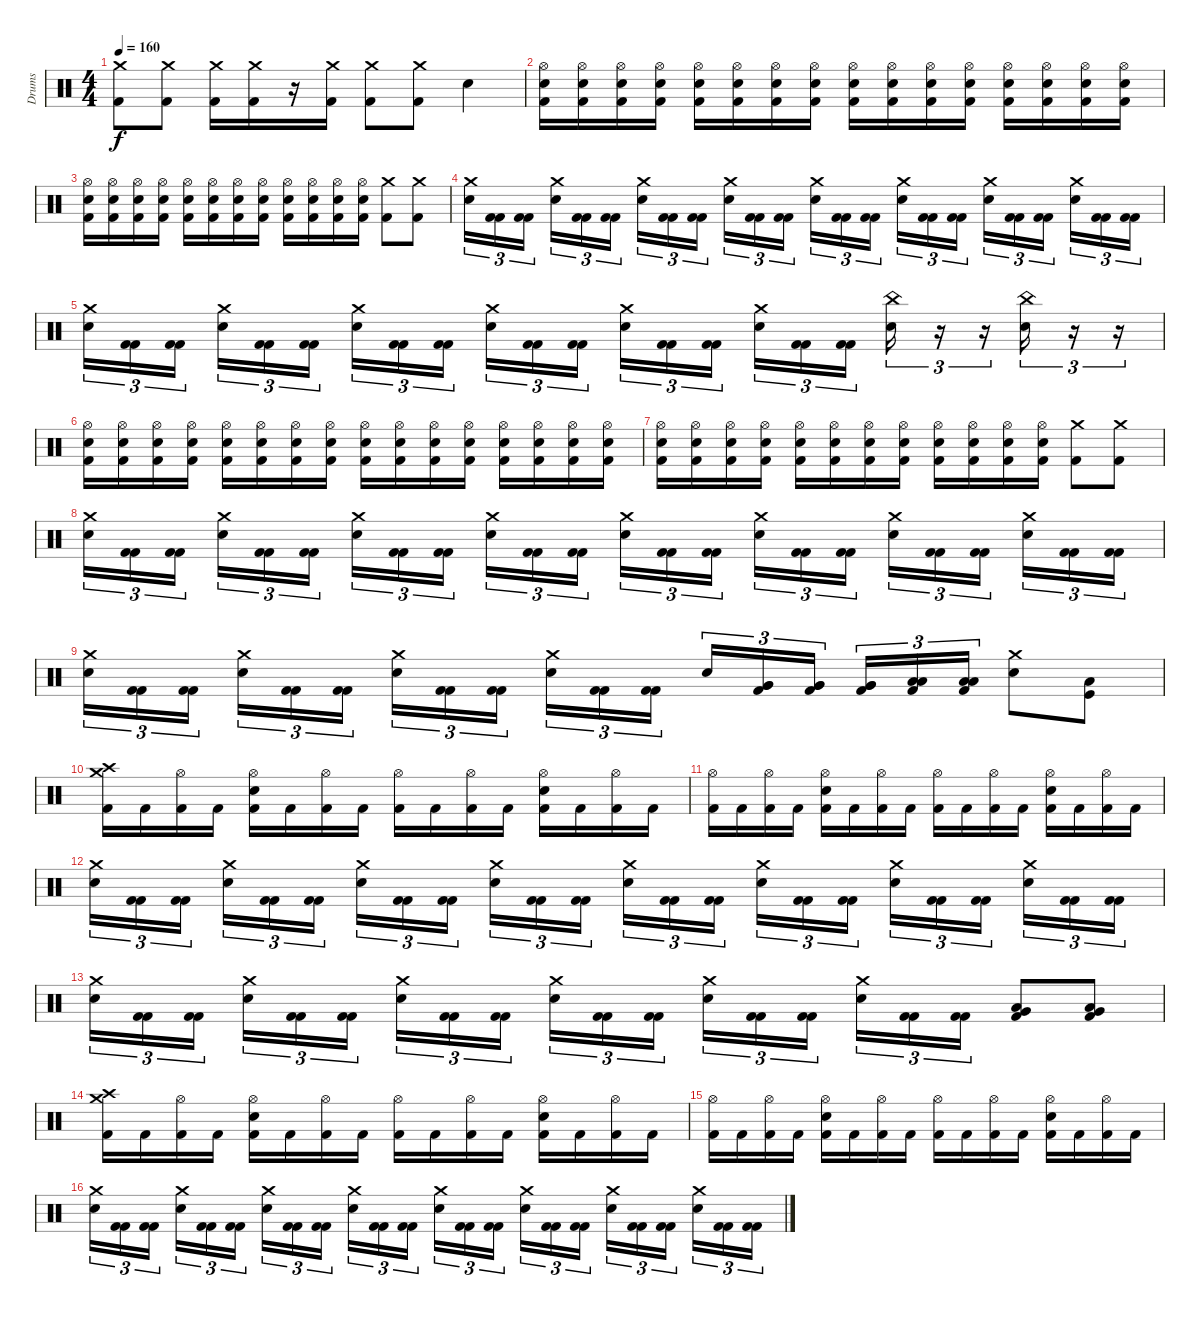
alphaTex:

\track ("Drums" "Drums") {instrument percussion}
\staff {score}
\articulation defaults
\ts (4 4)
\tempo 160
\clef neutral
\ks c
("Crash medium (hit)" "Kick (hit) 2").8{dy f} ("Crash medium (hit)" "Kick (hit) 2").8 ("Crash medium (hit)" "Kick (hit) 2").16 ("Crash medium (hit)" "Kick (hit) 2").16 r.16 ("Crash medium (hit)" "Kick (hit) 2").16 ("Crash medium (hit)" "Kick (hit) 2").8 ("Crash medium (hit)" "Kick (hit) 2").8 "Electric Snare (hit)".4 |
("Hi-Hat (open)" "Electric Snare (hit)" "Kick (hit) 2").16 ("Hi-Hat (open)" "Electric Snare (hit)" "Kick (hit) 2").16 ("Hi-Hat (open)" "Electric Snare (hit)" "Kick (hit) 2").16 ("Hi-Hat (open)" "Electric Snare (hit)" "Kick (hit) 2").16 ("Hi-Hat (open)" "Electric Snare (hit)" "Kick (hit) 2").16 ("Hi-Hat (open)" "Electric Snare (hit)" "Kick (hit) 2").16 ("Hi-Hat (open)" "Electric Snare (hit)" "Kick (hit) 2").16 ("Hi-Hat (open)" "Electric Snare (hit)" "Kick (hit) 2").16 ("Hi-Hat (open)" "Electric Snare (hit)" "Kick (hit) 2").16 ("Hi-Hat (open)" "Electric Snare (hit)" "Kick (hit) 2").16 ("Hi-Hat (open)" "Electric Snare (hit)" "Kick (hit) 2").16 ("Hi-Hat (open)" "Electric Snare (hit)" "Kick (hit) 2").16 ("Hi-Hat (open)" "Electric Snare (hit)" "Kick (hit) 2").16 ("Hi-Hat (open)" "Electric Snare (hit)" "Kick (hit) 2").16 ("Hi-Hat (open)" "Electric Snare (hit)" "Kick (hit) 2").16 ("Hi-Hat (open)" "Electric Snare (hit)" "Kick (hit) 2").16 |
("Hi-Hat (open)" "Electric Snare (hit)" "Kick (hit) 2").16 ("Hi-Hat (open)" "Electric Snare (hit)" "Kick (hit) 2").16 ("Hi-Hat (open)" "Electric Snare (hit)" "Kick (hit) 2").16 ("Hi-Hat (open)" "Electric Snare (hit)" "Kick (hit) 2").16 ("Hi-Hat (open)" "Electric Snare (hit)" "Kick (hit) 2").16 ("Hi-Hat (open)" "Electric Snare (hit)" "Kick (hit) 2").16 ("Hi-Hat (open)" "Electric Snare (hit)" "Kick (hit) 2").16 ("Hi-Hat (open)" "Electric Snare (hit)" "Kick (hit) 2").16 ("Hi-Hat (open)" "Electric Snare (hit)" "Kick (hit) 2").16 ("Hi-Hat (open)" "Electric Snare (hit)" "Kick (hit) 2").16 ("Hi-Hat (open)" "Electric Snare (hit)" "Kick (hit) 2").16 ("Hi-Hat (open)" "Electric Snare (hit)" "Kick (hit) 2").16 ("Crash medium (hit)" "Kick (hit) 2").8 ("Crash medium (hit)" "Kick (hit) 2").8 |
("Crash medium (hit)" "Electric Snare (hit)").16{tu (3 2)} ("Kick (hit) 2" "Kick (hit) 2").16{tu (3 2)} ("Kick (hit) 2" "Kick (hit) 2").16{tu (3 2) beam splitsecondary} ("Crash medium (hit)" "Electric Snare (hit)").16{tu (3 2)} ("Kick (hit) 2" "Kick (hit) 2").16{tu (3 2)} ("Kick (hit) 2" "Kick (hit) 2").16{tu (3 2)} ("Crash medium (hit)" "Electric Snare (hit)").16{tu (3 2)} ("Kick (hit) 2" "Kick (hit) 2").16{tu (3 2)} ("Kick (hit) 2" "Kick (hit) 2").16{tu (3 2) beam splitsecondary} ("Crash medium (hit)" "Electric Snare (hit)").16{tu (3 2)} ("Kick (hit) 2" "Kick (hit) 2").16{tu (3 2)} ("Kick (hit) 2" "Kick (hit) 2").16{tu (3 2)} ("Crash medium (hit)" "Electric Snare (hit)").16{tu (3 2)} ("Kick (hit) 2" "Kick (hit) 2").16{tu (3 2)} ("Kick (hit) 2" "Kick (hit) 2").16{tu (3 2) beam splitsecondary} ("Crash medium (hit)" "Electric Snare (hit)").16{tu (3 2)} ("Kick (hit) 2" "Kick (hit) 2").16{tu (3 2)} ("Kick (hit) 2" "Kick (hit) 2").16{tu (3 2)} ("Crash medium (hit)" "Electric Snare (hit)").16{tu (3 2)} ("Kick (hit) 2" "Kick (hit) 2").16{tu (3 2)} ("Kick (hit) 2" "Kick (hit) 2").16{tu (3 2) beam splitsecondary} ("Crash medium (hit)" "Electric Snare (hit)").16{tu (3 2)} ("Kick (hit) 2" "Kick (hit) 2").16{tu (3 2)} ("Kick (hit) 2" "Kick (hit) 2").16{tu (3 2)} |
("Crash medium (hit)" "Electric Snare (hit)").16{tu (3 2)} ("Kick (hit) 2" "Kick (hit) 2").16{tu (3 2)} ("Kick (hit) 2" "Kick (hit) 2").16{tu (3 2) beam splitsecondary} ("Crash medium (hit)" "Electric Snare (hit)").16{tu (3 2)} ("Kick (hit) 2" "Kick (hit) 2").16{tu (3 2)} ("Kick (hit) 2" "Kick (hit) 2").16{tu (3 2)} ("Crash medium (hit)" "Electric Snare (hit)").16{tu (3 2)} ("Kick (hit) 2" "Kick (hit) 2").16{tu (3 2)} ("Kick (hit) 2" "Kick (hit) 2").16{tu (3 2) beam splitsecondary} ("Crash medium (hit)" "Electric Snare (hit)").16{tu (3 2)} ("Kick (hit) 2" "Kick (hit) 2").16{tu (3 2)} ("Kick (hit) 2" "Kick (hit) 2").16{tu (3 2)} ("Crash medium (hit)" "Electric Snare (hit)").16{tu (3 2)} ("Kick (hit) 2" "Kick (hit) 2").16{tu (3 2)} ("Kick (hit) 2" "Kick (hit) 2").16{tu (3 2) beam splitsecondary} ("Crash medium (hit)" "Electric Snare (hit)").16{tu (3 2)} ("Kick (hit) 2" "Kick (hit) 2").16{tu (3 2)} ("Kick (hit) 2" "Kick (hit) 2").16{tu (3 2)} ("China (hit)" "Electric Snare (hit)").16{tu (3 2)} r.16{tu (3 2)} r.16{tu (3 2)} ("China (hit)" "Electric Snare (hit)").16{tu (3 2)} r.16{tu (3 2)} r.16{tu (3 2)} |
("Hi-Hat (open)" "Electric Snare (hit)" "Kick (hit) 2").16 ("Hi-Hat (open)" "Electric Snare (hit)" "Kick (hit) 2").16 ("Hi-Hat (open)" "Electric Snare (hit)" "Kick (hit) 2").16 ("Hi-Hat (open)" "Electric Snare (hit)" "Kick (hit) 2").16 ("Hi-Hat (open)" "Electric Snare (hit)" "Kick (hit) 2").16 ("Hi-Hat (open)" "Electric Snare (hit)" "Kick (hit) 2").16 ("Hi-Hat (open)" "Electric Snare (hit)" "Kick (hit) 2").16 ("Hi-Hat (open)" "Electric Snare (hit)" "Kick (hit) 2").16 ("Hi-Hat (open)" "Electric Snare (hit)" "Kick (hit) 2").16 ("Hi-Hat (open)" "Electric Snare (hit)" "Kick (hit) 2").16 ("Hi-Hat (open)" "Electric Snare (hit)" "Kick (hit) 2").16 ("Hi-Hat (open)" "Electric Snare (hit)" "Kick (hit) 2").16 ("Hi-Hat (open)" "Electric Snare (hit)" "Kick (hit) 2").16 ("Hi-Hat (open)" "Electric Snare (hit)" "Kick (hit) 2").16 ("Hi-Hat (open)" "Electric Snare (hit)" "Kick (hit) 2").16 ("Hi-Hat (open)" "Electric Snare (hit)" "Kick (hit) 2").16 |
("Hi-Hat (open)" "Electric Snare (hit)" "Kick (hit) 2").16 ("Hi-Hat (open)" "Electric Snare (hit)" "Kick (hit) 2").16 ("Hi-Hat (open)" "Electric Snare (hit)" "Kick (hit) 2").16 ("Hi-Hat (open)" "Electric Snare (hit)" "Kick (hit) 2").16 ("Hi-Hat (open)" "Electric Snare (hit)" "Kick (hit) 2").16 ("Hi-Hat (open)" "Electric Snare (hit)" "Kick (hit) 2").16 ("Hi-Hat (open)" "Electric Snare (hit)" "Kick (hit) 2").16 ("Hi-Hat (open)" "Electric Snare (hit)" "Kick (hit) 2").16 ("Hi-Hat (open)" "Electric Snare (hit)" "Kick (hit) 2").16 ("Hi-Hat (open)" "Electric Snare (hit)" "Kick (hit) 2").16 ("Hi-Hat (open)" "Electric Snare (hit)" "Kick (hit) 2").16 ("Hi-Hat (open)" "Electric Snare (hit)" "Kick (hit) 2").16 ("Crash medium (hit)" "Kick (hit) 2").8 ("Crash medium (hit)" "Kick (hit) 2").8 |
("Crash medium (hit)" "Electric Snare (hit)").16{tu (3 2)} ("Kick (hit) 2" "Kick (hit) 2").16{tu (3 2)} ("Kick (hit) 2" "Kick (hit) 2").16{tu (3 2) beam splitsecondary} ("Crash medium (hit)" "Electric Snare (hit)").16{tu (3 2)} ("Kick (hit) 2" "Kick (hit) 2").16{tu (3 2)} ("Kick (hit) 2" "Kick (hit) 2").16{tu (3 2)} ("Crash medium (hit)" "Electric Snare (hit)").16{tu (3 2)} ("Kick (hit) 2" "Kick (hit) 2").16{tu (3 2)} ("Kick (hit) 2" "Kick (hit) 2").16{tu (3 2) beam splitsecondary} ("Crash medium (hit)" "Electric Snare (hit)").16{tu (3 2)} ("Kick (hit) 2" "Kick (hit) 2").16{tu (3 2)} ("Kick (hit) 2" "Kick (hit) 2").16{tu (3 2)} ("Crash medium (hit)" "Electric Snare (hit)").16{tu (3 2)} ("Kick (hit) 2" "Kick (hit) 2").16{tu (3 2)} ("Kick (hit) 2" "Kick (hit) 2").16{tu (3 2) beam splitsecondary} ("Crash medium (hit)" "Electric Snare (hit)").16{tu (3 2)} ("Kick (hit) 2" "Kick (hit) 2").16{tu (3 2)} ("Kick (hit) 2" "Kick (hit) 2").16{tu (3 2)} ("Crash medium (hit)" "Electric Snare (hit)").16{tu (3 2)} ("Kick (hit) 2" "Kick (hit) 2").16{tu (3 2)} ("Kick (hit) 2" "Kick (hit) 2").16{tu (3 2) beam splitsecondary} ("Crash medium (hit)" "Electric Snare (hit)").16{tu (3 2)} ("Kick (hit) 2" "Kick (hit) 2").16{tu (3 2)} ("Kick (hit) 2" "Kick (hit) 2").16{tu (3 2)} |
("Crash medium (hit)" "Electric Snare (hit)").16{tu (3 2)} ("Kick (hit) 2" "Kick (hit) 2").16{tu (3 2)} ("Kick (hit) 2" "Kick (hit) 2").16{tu (3 2) beam splitsecondary} ("Crash medium (hit)" "Electric Snare (hit)").16{tu (3 2)} ("Kick (hit) 2" "Kick (hit) 2").16{tu (3 2)} ("Kick (hit) 2" "Kick (hit) 2").16{tu (3 2)} ("Crash medium (hit)" "Electric Snare (hit)").16{tu (3 2)} ("Kick (hit) 2" "Kick (hit) 2").16{tu (3 2)} ("Kick (hit) 2" "Kick (hit) 2").16{tu (3 2) beam splitsecondary} ("Crash medium (hit)" "Electric Snare (hit)").16{tu (3 2)} ("Kick (hit) 2" "Kick (hit) 2").16{tu (3 2)} ("Kick (hit) 2" "Kick (hit) 2").16{tu (3 2)} "Electric Snare (hit)".16{tu (3 2)} ("Very Low Tom (hit)" "Very Low Tom (hit)" "Kick (hit) 2").16{tu (3 2)} ("Very Low Tom (hit)" "Very Low Tom (hit)" "Kick (hit) 2").16{tu (3 2) beam splitsecondary} ("Very Low Tom (hit)" "Very Low Tom (hit)" "Kick (hit) 2").16{tu (3 2)} ("Low Tom (hit)" "Low Tom (hit)" "Kick (hit) 2").16{tu (3 2)} ("Low Tom (hit)" "Low Tom (hit)" "Kick (hit) 2").16{tu (3 2)} ("Crash medium (hit)" "Electric Snare (hit)").8 ("Low Tom (hit)" "Kick (hit)").8 |
("Crash high (hit)" "Crash medium (hit)" "Kick (hit) 2").16 "Kick (hit) 2".16 ("Hi-Hat (open)" "Kick (hit) 2").16 "Kick (hit) 2".16 ("Hi-Hat (open)" "Electric Snare (hit)" "Kick (hit) 2").16 "Kick (hit) 2".16 ("Hi-Hat (open)" "Kick (hit) 2").16 "Kick (hit) 2".16 ("Hi-Hat (open)" "Kick (hit) 2").16 "Kick (hit) 2".16 ("Hi-Hat (open)" "Kick (hit) 2").16 "Kick (hit) 2".16 ("Hi-Hat (open)" "Electric Snare (hit)" "Kick (hit) 2").16 "Kick (hit) 2".16 ("Hi-Hat (open)" "Kick (hit) 2").16 "Kick (hit) 2".16 |
("Hi-Hat (open)" "Kick (hit) 2").16 "Kick (hit) 2".16 ("Hi-Hat (open)" "Kick (hit) 2").16 "Kick (hit) 2".16 ("Hi-Hat (open)" "Electric Snare (hit)" "Kick (hit) 2").16 "Kick (hit) 2".16 ("Hi-Hat (open)" "Kick (hit) 2").16 "Kick (hit) 2".16 ("Hi-Hat (open)" "Kick (hit) 2").16 "Kick (hit) 2".16 ("Hi-Hat (open)" "Kick (hit) 2").16 "Kick (hit) 2".16 ("Hi-Hat (open)" "Electric Snare (hit)" "Kick (hit) 2").16 "Kick (hit) 2".16 ("Hi-Hat (open)" "Kick (hit) 2").16 "Kick (hit) 2".16 |
("Crash medium (hit)" "Electric Snare (hit)").16{tu (3 2)} ("Kick (hit) 2" "Kick (hit) 2").16{tu (3 2)} ("Kick (hit) 2" "Kick (hit) 2").16{tu (3 2) beam splitsecondary} ("Crash medium (hit)" "Electric Snare (hit)").16{tu (3 2)} ("Kick (hit) 2" "Kick (hit) 2").16{tu (3 2)} ("Kick (hit) 2" "Kick (hit) 2").16{tu (3 2)} ("Crash medium (hit)" "Electric Snare (hit)").16{tu (3 2)} ("Kick (hit) 2" "Kick (hit) 2").16{tu (3 2)} ("Kick (hit) 2" "Kick (hit) 2").16{tu (3 2) beam splitsecondary} ("Crash medium (hit)" "Electric Snare (hit)").16{tu (3 2)} ("Kick (hit) 2" "Kick (hit) 2").16{tu (3 2)} ("Kick (hit) 2" "Kick (hit) 2").16{tu (3 2)} ("Crash medium (hit)" "Electric Snare (hit)").16{tu (3 2)} ("Kick (hit) 2" "Kick (hit) 2").16{tu (3 2)} ("Kick (hit) 2" "Kick (hit) 2").16{tu (3 2) beam splitsecondary} ("Crash medium (hit)" "Electric Snare (hit)").16{tu (3 2)} ("Kick (hit) 2" "Kick (hit) 2").16{tu (3 2)} ("Kick (hit) 2" "Kick (hit) 2").16{tu (3 2)} ("Crash medium (hit)" "Electric Snare (hit)").16{tu (3 2)} ("Kick (hit) 2" "Kick (hit) 2").16{tu (3 2)} ("Kick (hit) 2" "Kick (hit) 2").16{tu (3 2) beam splitsecondary} ("Crash medium (hit)" "Electric Snare (hit)").16{tu (3 2)} ("Kick (hit) 2" "Kick (hit) 2").16{tu (3 2)} ("Kick (hit) 2" "Kick (hit) 2").16{tu (3 2)} |
("Crash medium (hit)" "Electric Snare (hit)").16{tu (3 2)} ("Kick (hit) 2" "Kick (hit) 2").16{tu (3 2)} ("Kick (hit) 2" "Kick (hit) 2").16{tu (3 2) beam splitsecondary} ("Crash medium (hit)" "Electric Snare (hit)").16{tu (3 2)} ("Kick (hit) 2" "Kick (hit) 2").16{tu (3 2)} ("Kick (hit) 2" "Kick (hit) 2").16{tu (3 2)} ("Crash medium (hit)" "Electric Snare (hit)").16{tu (3 2)} ("Kick (hit) 2" "Kick (hit) 2").16{tu (3 2)} ("Kick (hit) 2" "Kick (hit) 2").16{tu (3 2) beam splitsecondary} ("Crash medium (hit)" "Electric Snare (hit)").16{tu (3 2)} ("Kick (hit) 2" "Kick (hit) 2").16{tu (3 2)} ("Kick (hit) 2" "Kick (hit) 2").16{tu (3 2)} ("Crash medium (hit)" "Electric Snare (hit)").16{tu (3 2)} ("Kick (hit) 2" "Kick (hit) 2").16{tu (3 2)} ("Kick (hit) 2" "Kick (hit) 2").16{tu (3 2) beam splitsecondary} ("Crash medium (hit)" "Electric Snare (hit)").16{tu (3 2)} ("Kick (hit) 2" "Kick (hit) 2").16{tu (3 2)} ("Kick (hit) 2" "Kick (hit) 2").16{tu (3 2)} ("Very Low Tom (hit)" "Low Tom (hit)" "Kick (hit) 2").8 ("Very Low Tom (hit)" "Low Tom (hit)" "Kick (hit) 2").8 |
("Crash high (hit)" "Crash medium (hit)" "Kick (hit) 2").16 "Kick (hit) 2".16 ("Hi-Hat (open)" "Kick (hit) 2").16 "Kick (hit) 2".16 ("Hi-Hat (open)" "Electric Snare (hit)" "Kick (hit) 2").16 "Kick (hit) 2".16 ("Hi-Hat (open)" "Kick (hit) 2").16 "Kick (hit) 2".16 ("Hi-Hat (open)" "Kick (hit) 2").16 "Kick (hit) 2".16 ("Hi-Hat (open)" "Kick (hit) 2").16 "Kick (hit) 2".16 ("Hi-Hat (open)" "Electric Snare (hit)" "Kick (hit) 2").16 "Kick (hit) 2".16 ("Hi-Hat (open)" "Kick (hit) 2").16 "Kick (hit) 2".16 |
("Hi-Hat (open)" "Kick (hit) 2").16 "Kick (hit) 2".16 ("Hi-Hat (open)" "Kick (hit) 2").16 "Kick (hit) 2".16 ("Hi-Hat (open)" "Electric Snare (hit)" "Kick (hit) 2").16 "Kick (hit) 2".16 ("Hi-Hat (open)" "Kick (hit) 2").16 "Kick (hit) 2".16 ("Hi-Hat (open)" "Kick (hit) 2").16 "Kick (hit) 2".16 ("Hi-Hat (open)" "Kick (hit) 2").16 "Kick (hit) 2".16 ("Hi-Hat (open)" "Electric Snare (hit)" "Kick (hit) 2").16 "Kick (hit) 2".16 ("Hi-Hat (open)" "Kick (hit) 2").16 "Kick (hit) 2".16 |
("Crash medium (hit)" "Electric Snare (hit)").16{tu (3 2)} ("Kick (hit) 2" "Kick (hit) 2").16{tu (3 2)} ("Kick (hit) 2" "Kick (hit) 2").16{tu (3 2) beam splitsecondary} ("Crash medium (hit)" "Electric Snare (hit)").16{tu (3 2)} ("Kick (hit) 2" "Kick (hit) 2").16{tu (3 2)} ("Kick (hit) 2" "Kick (hit) 2").16{tu (3 2)} ("Crash medium (hit)" "Electric Snare (hit)").16{tu (3 2)} ("Kick (hit) 2" "Kick (hit) 2").16{tu (3 2)} ("Kick (hit) 2" "Kick (hit) 2").16{tu (3 2) beam splitsecondary} ("Crash medium (hit)" "Electric Snare (hit)").16{tu (3 2)} ("Kick (hit) 2" "Kick (hit) 2").16{tu (3 2)} ("Kick (hit) 2" "Kick (hit) 2").16{tu (3 2)} ("Crash medium (hit)" "Electric Snare (hit)").16{tu (3 2)} ("Kick (hit) 2" "Kick (hit) 2").16{tu (3 2)} ("Kick (hit) 2" "Kick (hit) 2").16{tu (3 2) beam splitsecondary} ("Crash medium (hit)" "Electric Snare (hit)").16{tu (3 2)} ("Kick (hit) 2" "Kick (hit) 2").16{tu (3 2)} ("Kick (hit) 2" "Kick (hit) 2").16{tu (3 2)} ("Crash medium (hit)" "Electric Snare (hit)").16{tu (3 2)} ("Kick (hit) 2" "Kick (hit) 2").16{tu (3 2)} ("Kick (hit) 2" "Kick (hit) 2").16{tu (3 2) beam splitsecondary} ("Crash medium (hit)" "Electric Snare (hit)").16{tu (3 2)} ("Kick (hit) 2" "Kick (hit) 2").16{tu (3 2)} ("Kick (hit) 2" "Kick (hit) 2").16{tu (3 2)}
